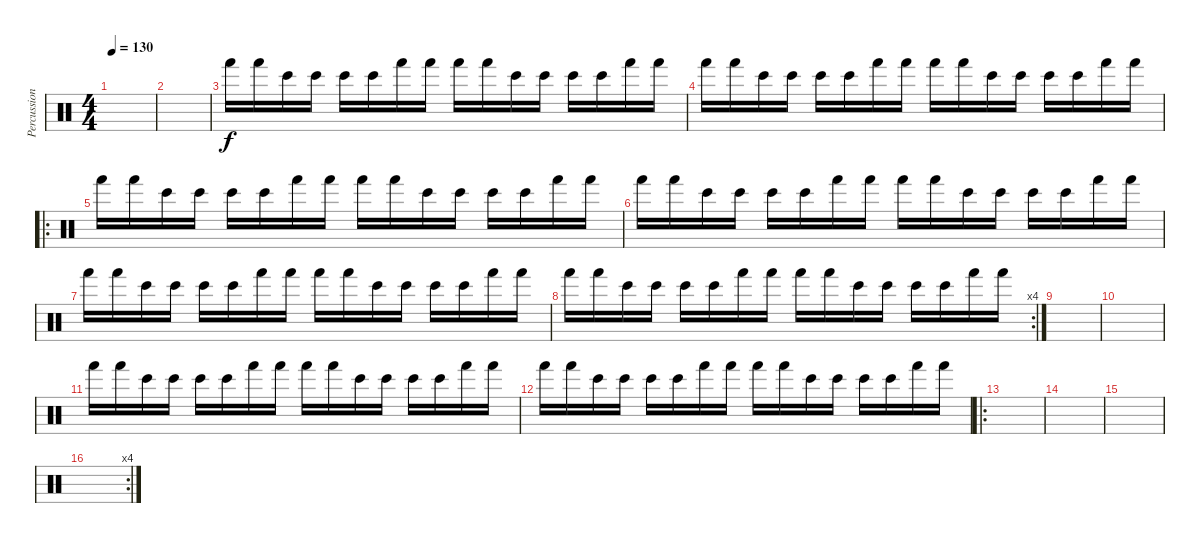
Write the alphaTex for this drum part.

\track ("Percussion" "Percussion") {instrument percussion}
\staff {score}
\articulation defaults
\ts (4 4)
\tempo 130
\clef neutral
\ks c
|
|
"Hand (hit)".16 "Hand (hit)".16 "Bongo High (hit)".16 "Bongo High (hit)".16 "Bongo High (hit)".16 "Bongo High (hit)".16 "Hand (hit)".16 "Hand (hit)".16 "Hand (hit)".16 "Hand (hit)".16 "Bongo High (hit)".16 "Bongo High (hit)".16 "Bongo High (hit)".16 "Bongo High (hit)".16 "Hand (hit)".16 "Hand (hit)".16 |
"Hand (hit)".16 "Hand (hit)".16 "Bongo High (hit)".16 "Bongo High (hit)".16 "Bongo High (hit)".16 "Bongo High (hit)".16 "Hand (hit)".16 "Hand (hit)".16 "Hand (hit)".16 "Hand (hit)".16 "Bongo High (hit)".16 "Bongo High (hit)".16 "Bongo High (hit)".16 "Bongo High (hit)".16 "Hand (hit)".16 "Hand (hit)".16 |
\ro "Hand (hit)".16 "Hand (hit)".16 "Bongo High (hit)".16 "Bongo High (hit)".16 "Bongo High (hit)".16 "Bongo High (hit)".16 "Hand (hit)".16 "Hand (hit)".16 "Hand (hit)".16 "Hand (hit)".16 "Bongo High (hit)".16 "Bongo High (hit)".16 "Bongo High (hit)".16 "Bongo High (hit)".16 "Hand (hit)".16 "Hand (hit)".16
|
"Hand (hit)".16 "Hand (hit)".16 "Bongo High (hit)".16 "Bongo High (hit)".16 "Bongo High (hit)".16 "Bongo High (hit)".16 "Hand (hit)".16 "Hand (hit)".16 "Hand (hit)".16 "Hand (hit)".16 "Bongo High (hit)".16 "Bongo High (hit)".16 "Bongo High (hit)".16 "Bongo High (hit)".16 "Hand (hit)".16 "Hand (hit)".16 |
"Hand (hit)".16 "Hand (hit)".16 "Bongo High (hit)".16 "Bongo High (hit)".16 "Bongo High (hit)".16 "Bongo High (hit)".16 "Hand (hit)".16 "Hand (hit)".16 "Hand (hit)".16 "Hand (hit)".16 "Bongo High (hit)".16 "Bongo High (hit)".16 "Bongo High (hit)".16 "Bongo High (hit)".16 "Hand (hit)".16 "Hand (hit)".16 |
\rc 4 "Hand (hit)".16 "Hand (hit)".16 "Bongo High (hit)".16 "Bongo High (hit)".16 "Bongo High (hit)".16 "Bongo High (hit)".16 "Hand (hit)".16 "Hand (hit)".16 "Hand (hit)".16 "Hand (hit)".16 "Bongo High (hit)".16 "Bongo High (hit)".16 "Bongo High (hit)".16 "Bongo High (hit)".16 "Hand (hit)".16 "Hand (hit)".16
|
|
|
"Hand (hit)".16 "Hand (hit)".16 "Bongo High (hit)".16 "Bongo High (hit)".16 "Bongo High (hit)".16 "Bongo High (hit)".16 "Hand (hit)".16 "Hand (hit)".16 "Hand (hit)".16 "Hand (hit)".16 "Bongo High (hit)".16 "Bongo High (hit)".16 "Bongo High (hit)".16 "Bongo High (hit)".16 "Hand (hit)".16 "Hand (hit)".16 |
"Hand (hit)".16 "Hand (hit)".16 "Bongo High (hit)".16 "Bongo High (hit)".16 "Bongo High (hit)".16 "Bongo High (hit)".16 "Hand (hit)".16 "Hand (hit)".16 "Hand (hit)".16 "Hand (hit)".16 "Bongo High (hit)".16 "Bongo High (hit)".16 "Bongo High (hit)".16 "Bongo High (hit)".16 "Hand (hit)".16 "Hand (hit)".16 |
\ro
|
|
|
\rc 4
